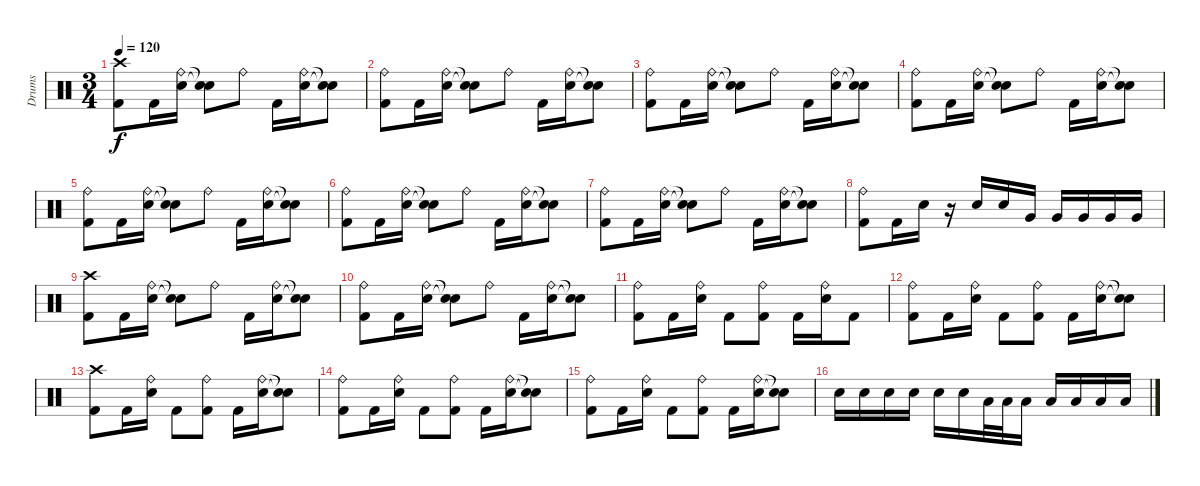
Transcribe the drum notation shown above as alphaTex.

\track ("Drums" "Drums") {instrument percussion}
\staff {score}
\articulation defaults
\ts (3 4)
\tempo 120
\clef neutral
\ks c
("Crash high (hit)" "Kick (hit) 2").8{dy f} "Kick (hit) 2".16 ("Ride (bell)" "Electric Snare (hit)").16 ("Snare (hit)"{t} "Snare (hit)"{t}).8 "Ride (bell)".8 "Kick (hit) 2".16 ("Ride (bell)" "Electric Snare (hit)").16 ("Snare (hit)"{t} "Snare (hit)"{t}).8 |
("Ride (bell)" "Kick (hit) 2").8 "Kick (hit) 2".16 ("Ride (bell)" "Electric Snare (hit)").16 ("Snare (hit)"{t} "Snare (hit)"{t}).8 "Ride (bell)".8 "Kick (hit) 2".16 ("Ride (bell)" "Electric Snare (hit)").16 ("Snare (hit)"{t} "Snare (hit)"{t}).8 |
("Ride (bell)" "Kick (hit) 2").8 "Kick (hit) 2".16 ("Ride (bell)" "Electric Snare (hit)").16 ("Snare (hit)"{t} "Snare (hit)"{t}).8 "Ride (bell)".8 "Kick (hit) 2".16 ("Ride (bell)" "Electric Snare (hit)").16 ("Snare (hit)"{t} "Snare (hit)"{t}).8 |
("Ride (bell)" "Kick (hit) 2").8 "Kick (hit) 2".16 ("Ride (bell)" "Electric Snare (hit)").16 ("Snare (hit)"{t} "Snare (hit)"{t}).8 "Ride (bell)".8 "Kick (hit) 2".16 ("Ride (bell)" "Electric Snare (hit)").16 ("Snare (hit)"{t} "Snare (hit)"{t}).8 |
("Ride (bell)" "Kick (hit) 2").8 "Kick (hit) 2".16 ("Ride (bell)" "Electric Snare (hit)").16 ("Snare (hit)"{t} "Snare (hit)"{t}).8 "Ride (bell)".8 "Kick (hit) 2".16 ("Ride (bell)" "Electric Snare (hit)").16 ("Snare (hit)"{t} "Snare (hit)"{t}).8 |
("Ride (bell)" "Kick (hit) 2").8 "Kick (hit) 2".16 ("Ride (bell)" "Electric Snare (hit)").16 ("Snare (hit)"{t} "Snare (hit)"{t}).8 "Ride (bell)".8 "Kick (hit) 2".16 ("Ride (bell)" "Electric Snare (hit)").16 ("Snare (hit)"{t} "Snare (hit)"{t}).8 |
("Ride (bell)" "Kick (hit) 2").8 "Kick (hit) 2".16 ("Ride (bell)" "Electric Snare (hit)").16 ("Snare (hit)"{t} "Snare (hit)"{t}).8 "Ride (bell)".8 "Kick (hit) 2".16 ("Ride (bell)" "Electric Snare (hit)").16 ("Snare (hit)"{t} "Snare (hit)"{t}).8 |
("Ride (bell)" "Kick (hit) 2").8 "Kick (hit) 2".16 "Electric Snare (hit)".16 r.16 "Electric Snare (hit)".16 "Electric Snare (hit)".16 "Very Low Tom (hit)".16 "Very Low Tom (hit)".16 "Very Low Tom (hit)".16 "Very Low Tom (hit)".16 "Very Low Tom (hit)".16 |
("Crash high (hit)" "Kick (hit) 2").8 "Kick (hit) 2".16 ("Ride (bell)" "Electric Snare (hit)").16 ("Snare (hit)"{t} "Snare (hit)"{t}).8 "Ride (bell)".8 "Kick (hit) 2".16 ("Ride (bell)" "Electric Snare (hit)").16 ("Snare (hit)"{t} "Snare (hit)"{t}).8 |
("Ride (bell)" "Kick (hit) 2").8 "Kick (hit) 2".16 ("Ride (bell)" "Electric Snare (hit)").16 ("Snare (hit)"{t} "Snare (hit)"{t}).8 "Ride (bell)".8 "Kick (hit) 2".16 ("Ride (bell)" "Electric Snare (hit)").16 ("Snare (hit)"{t} "Snare (hit)"{t}).8 |
("Ride (bell)" "Kick (hit) 2").8 "Kick (hit) 2".16 ("Ride (bell)" "Electric Snare (hit)").16 "Kick (hit) 2".8 ("Ride (bell)" "Kick (hit) 2").8 "Kick (hit) 2".16 ("Ride (bell)" "Electric Snare (hit)").16 "Kick (hit) 2".8 |
("Ride (bell)" "Kick (hit) 2").8 "Kick (hit) 2".16 ("Ride (bell)" "Electric Snare (hit)").16 "Kick (hit) 2".8 ("Ride (bell)" "Kick (hit) 2").8 "Kick (hit) 2".16 ("Ride (bell)" "Electric Snare (hit)").16 ("Snare (hit)"{t} "Snare (hit)"{t}).8 |
("Crash high (hit)" "Kick (hit) 2").8 "Kick (hit) 2".16 ("Ride (bell)" "Electric Snare (hit)").16 "Kick (hit) 2".8 ("Ride (bell)" "Kick (hit) 2").8 "Kick (hit) 2".16 ("Ride (bell)" "Electric Snare (hit)").16 ("Snare (hit)"{t} "Snare (hit)"{t}).8 |
("Ride (bell)" "Kick (hit) 2").8 "Kick (hit) 2".16 ("Ride (bell)" "Electric Snare (hit)").16 "Kick (hit) 2".8 ("Ride (bell)" "Kick (hit) 2").8 "Kick (hit) 2".16 ("Ride (bell)" "Electric Snare (hit)").16 ("Snare (hit)"{t} "Snare (hit)"{t}).8 |
("Ride (bell)" "Kick (hit) 2").8 "Kick (hit) 2".16 ("Ride (bell)" "Electric Snare (hit)").16 "Kick (hit) 2".8 ("Ride (bell)" "Kick (hit) 2").8 "Kick (hit) 2".16 ("Ride (bell)" "Electric Snare (hit)").16 ("Snare (hit)"{t} "Snare (hit)"{t}).8 |
"Electric Snare (hit)".16 "Electric Snare (hit)".16 "Electric Snare (hit)".16 "Electric Snare (hit)".16 "Electric Snare (hit)".16 "Electric Snare (hit)".16 "Low Tom (hit)".32 "Low Tom (hit)".32 "Low Tom (hit)".16 "Low Tom (hit)".16 "Low Tom (hit)".16 "Low Tom (hit)".16 "Low Tom (hit)".16
